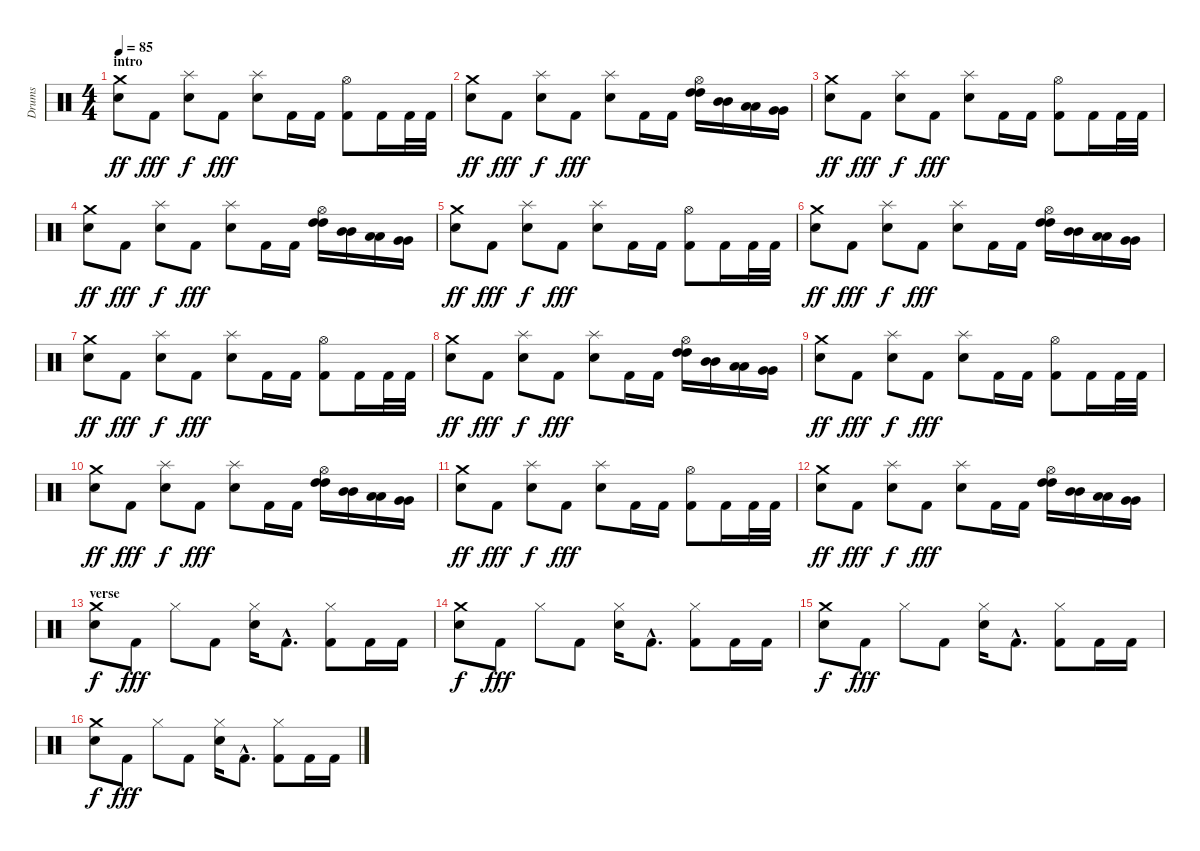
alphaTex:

\track ("Drums" "Drums") {instrument percussion}
\staff {score}
\articulation defaults
\ts (4 4)
\section ("" "intro")
\tempo 85
\clef neutral
\ks c
("Electric Snare (hit)" "Crash medium (hit)").8{dy ff} "Kick (hit) 2".8{dy fff} ("Splash (hit)" "Snare (hit) 2").8{dy f} "Kick (hit) 2".8{dy fff} ("Splash (hit)" "Electric Snare (hit)").8 "Kick (hit) 2".16 "Kick (hit) 2".16 ("Hi-Hat (open)" "Kick (hit) 2").8 "Kick (hit) 2".16 "Kick (hit) 2".32 "Kick (hit) 2".32 |
("Electric Snare (hit)" "Crash medium (hit)").8{dy ff} "Kick (hit) 2".8{dy fff} ("Splash (hit)" "Snare (hit) 2").8{dy f} "Kick (hit) 2".8{dy fff} ("Splash (hit)" "Electric Snare (hit)").8 "Kick (hit) 2".16 "Kick (hit) 2".16 ("Hi-Hat (open)" "High Tom (hit)" "High Tom (hit)").16 ("Mid Tom (hit)" "Mid Tom (hit)").16 ("Low Tom (hit)" "Low Tom (hit)").16 ("Very Low Tom (hit)" "Very Low Tom (hit)").16 |
("Electric Snare (hit)" "Crash medium (hit)").8{dy ff} "Kick (hit) 2".8{dy fff} ("Splash (hit)" "Snare (hit) 2").8{dy f} "Kick (hit) 2".8{dy fff} ("Splash (hit)" "Electric Snare (hit)").8 "Kick (hit) 2".16 "Kick (hit) 2".16 ("Hi-Hat (open)" "Kick (hit) 2").8 "Kick (hit) 2".16 "Kick (hit) 2".32 "Kick (hit) 2".32 |
("Electric Snare (hit)" "Crash medium (hit)").8{dy ff} "Kick (hit) 2".8{dy fff} ("Splash (hit)" "Snare (hit) 2").8{dy f} "Kick (hit) 2".8{dy fff} ("Splash (hit)" "Electric Snare (hit)").8 "Kick (hit) 2".16 "Kick (hit) 2".16 ("Hi-Hat (open)" "High Tom (hit)" "High Tom (hit)").16 ("Mid Tom (hit)" "Mid Tom (hit)").16 ("Low Tom (hit)" "Low Tom (hit)").16 ("Very Low Tom (hit)" "Very Low Tom (hit)").16 |
("Electric Snare (hit)" "Crash medium (hit)").8{dy ff} "Kick (hit) 2".8{dy fff} ("Splash (hit)" "Snare (hit) 2").8{dy f} "Kick (hit) 2".8{dy fff} ("Splash (hit)" "Electric Snare (hit)").8 "Kick (hit) 2".16 "Kick (hit) 2".16 ("Hi-Hat (open)" "Kick (hit) 2").8 "Kick (hit) 2".16 "Kick (hit) 2".32 "Kick (hit) 2".32 |
("Electric Snare (hit)" "Crash medium (hit)").8{dy ff} "Kick (hit) 2".8{dy fff} ("Splash (hit)" "Snare (hit) 2").8{dy f} "Kick (hit) 2".8{dy fff} ("Splash (hit)" "Electric Snare (hit)").8 "Kick (hit) 2".16 "Kick (hit) 2".16 ("Hi-Hat (open)" "High Tom (hit)" "High Tom (hit)").16 ("Mid Tom (hit)" "Mid Tom (hit)").16 ("Low Tom (hit)" "Low Tom (hit)").16 ("Very Low Tom (hit)" "Very Low Tom (hit)").16 |
("Electric Snare (hit)" "Crash medium (hit)").8{dy ff} "Kick (hit) 2".8{dy fff} ("Splash (hit)" "Snare (hit) 2").8{dy f} "Kick (hit) 2".8{dy fff} ("Splash (hit)" "Electric Snare (hit)").8 "Kick (hit) 2".16 "Kick (hit) 2".16 ("Hi-Hat (open)" "Kick (hit) 2").8 "Kick (hit) 2".16 "Kick (hit) 2".32 "Kick (hit) 2".32 |
("Electric Snare (hit)" "Crash medium (hit)").8{dy ff} "Kick (hit) 2".8{dy fff} ("Splash (hit)" "Snare (hit) 2").8{dy f} "Kick (hit) 2".8{dy fff} ("Splash (hit)" "Electric Snare (hit)").8 "Kick (hit) 2".16 "Kick (hit) 2".16 ("Hi-Hat (open)" "High Tom (hit)" "High Tom (hit)").16 ("Mid Tom (hit)" "Mid Tom (hit)").16 ("Low Tom (hit)" "Low Tom (hit)").16 ("Very Low Tom (hit)" "Very Low Tom (hit)").16 |
("Electric Snare (hit)" "Crash medium (hit)").8{dy ff} "Kick (hit) 2".8{dy fff} ("Splash (hit)" "Snare (hit) 2").8{dy f} "Kick (hit) 2".8{dy fff} ("Splash (hit)" "Electric Snare (hit)").8 "Kick (hit) 2".16 "Kick (hit) 2".16 ("Hi-Hat (open)" "Kick (hit) 2").8 "Kick (hit) 2".16 "Kick (hit) 2".32 "Kick (hit) 2".32 |
("Electric Snare (hit)" "Crash medium (hit)").8{dy ff} "Kick (hit) 2".8{dy fff} ("Splash (hit)" "Snare (hit) 2").8{dy f} "Kick (hit) 2".8{dy fff} ("Splash (hit)" "Electric Snare (hit)").8 "Kick (hit) 2".16 "Kick (hit) 2".16 ("Hi-Hat (open)" "High Tom (hit)" "High Tom (hit)").16 ("Mid Tom (hit)" "Mid Tom (hit)").16 ("Low Tom (hit)" "Low Tom (hit)").16 ("Very Low Tom (hit)" "Very Low Tom (hit)").16 |
("Electric Snare (hit)" "Crash medium (hit)").8{dy ff} "Kick (hit) 2".8{dy fff} ("Splash (hit)" "Snare (hit) 2").8{dy f} "Kick (hit) 2".8{dy fff} ("Splash (hit)" "Electric Snare (hit)").8 "Kick (hit) 2".16 "Kick (hit) 2".16 ("Hi-Hat (open)" "Kick (hit) 2").8 "Kick (hit) 2".16 "Kick (hit) 2".32 "Kick (hit) 2".32 |
("Electric Snare (hit)" "Crash medium (hit)").8{dy ff} "Kick (hit) 2".8{dy fff} ("Splash (hit)" "Snare (hit) 2").8{dy f} "Kick (hit) 2".8{dy fff} ("Splash (hit)" "Electric Snare (hit)").8 "Kick (hit) 2".16 "Kick (hit) 2".16 ("Hi-Hat (open)" "High Tom (hit)" "High Tom (hit)").16 ("Mid Tom (hit)" "Mid Tom (hit)").16 ("Low Tom (hit)" "Low Tom (hit)").16 ("Very Low Tom (hit)" "Very Low Tom (hit)").16 |
\section ("" "verse")
("Crash medium (hit)" "Electric Snare (hit)").8{dy f} "Kick (hit) 2".8{dy fff} "Hi-Hat (closed)".8 "Kick (hit) 2".8 ("Hi-Hat (closed)" "Electric Snare (hit)").16 "Kick (hit) 2"{hac}.8{d} ("Hi-Hat (closed)" "Kick (hit) 2").8 "Kick (hit) 2".16 "Kick (hit) 2".16 |
("Crash medium (hit)" "Electric Snare (hit)").8{dy f} "Kick (hit) 2".8{dy fff} "Hi-Hat (closed)".8 "Kick (hit) 2".8 ("Hi-Hat (closed)" "Electric Snare (hit)").16 "Kick (hit) 2"{hac}.8{d} ("Hi-Hat (closed)" "Kick (hit) 2").8 "Kick (hit) 2".16 "Kick (hit) 2".16 |
("Crash medium (hit)" "Electric Snare (hit)").8{dy f} "Kick (hit) 2".8{dy fff} "Hi-Hat (closed)".8 "Kick (hit) 2".8 ("Hi-Hat (closed)" "Electric Snare (hit)").16 "Kick (hit) 2"{hac}.8{d} ("Hi-Hat (closed)" "Kick (hit) 2").8 "Kick (hit) 2".16 "Kick (hit) 2".16 |
("Crash medium (hit)" "Electric Snare (hit)").8{dy f} "Kick (hit) 2".8{dy fff} "Hi-Hat (closed)".8 "Kick (hit) 2".8 ("Hi-Hat (closed)" "Electric Snare (hit)").16 "Kick (hit) 2"{hac}.8{d} ("Hi-Hat (closed)" "Kick (hit) 2").8 "Kick (hit) 2".16 "Kick (hit) 2".16
